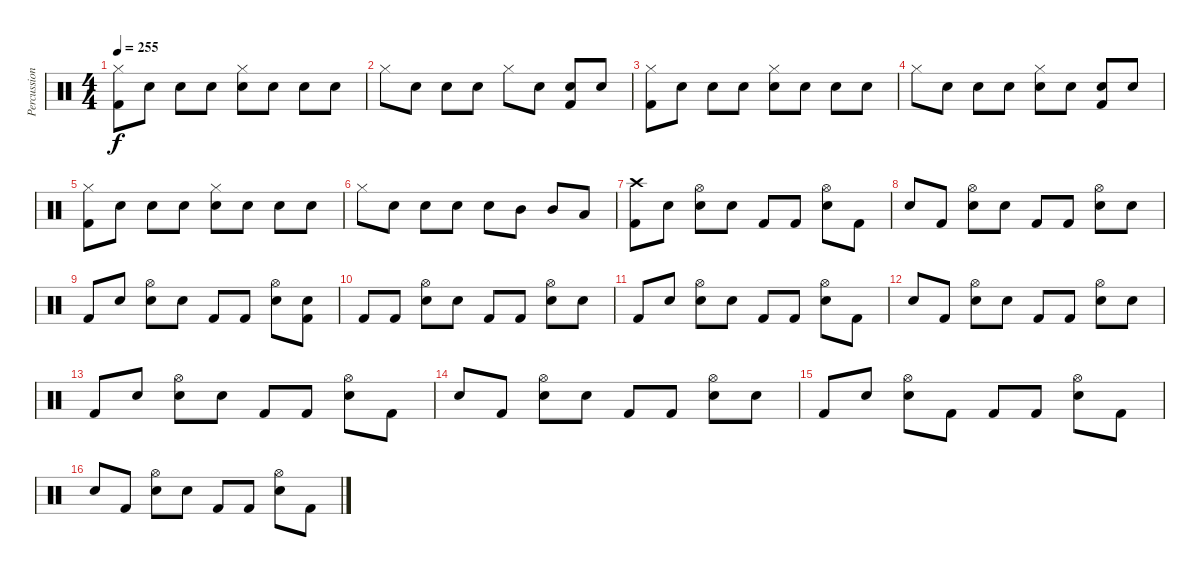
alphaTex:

\track ("Percussion" "Percussion") {instrument percussion}
\staff {score}
\articulation defaults
\ts (4 4)
\tempo 255
\clef neutral
\ks c
("Kick (hit) 2" "Hi-Hat (closed)").8{dy f} "Snare (hit)"{x}.8 "Snare (hit)"{x}.8 "Snare (hit)"{x}.8 ("Snare (hit) 2" "Hi-Hat (closed)").8 "Snare (hit)"{x}.8 "Snare (hit)"{x}.8 "Snare (hit)"{x}.8 |
"Hi-Hat (closed)".8 "Snare (hit)"{x}.8 "Snare (hit)"{x}.8 "Snare (hit)"{x}.8 "Hi-Hat (closed)".8 "Snare (hit)"{x}.8 ("Kick (hit) 2" "Snare (hit)"{x}).8 "Snare (hit)"{x}.8 |
("Kick (hit) 2" "Hi-Hat (closed)").8 "Snare (hit)"{x}.8 "Snare (hit)"{x}.8 "Snare (hit)"{x}.8 ("Snare (hit) 2" "Hi-Hat (closed)").8 "Snare (hit)"{x}.8 "Snare (hit)"{x}.8 "Snare (hit)"{x}.8 |
"Hi-Hat (closed)".8 "Snare (hit)"{x}.8 "Snare (hit)"{x}.8 "Snare (hit)"{x}.8 ("Snare (hit) 2" "Hi-Hat (closed)").8 "Snare (hit)"{x}.8 ("Kick (hit) 2" "Snare (hit)"{x}).8 "Snare (hit)"{x}.8 |
("Kick (hit) 2" "Hi-Hat (closed)").8 "Snare (hit)"{x}.8 "Snare (hit)"{x}.8 "Snare (hit)"{x}.8 ("Snare (hit) 2" "Hi-Hat (closed)").8 "Snare (hit)"{x}.8 "Snare (hit)"{x}.8 "Snare (hit)"{x}.8 |
"Hi-Hat (closed)".8 "Snare (hit)"{x}.8 "Snare (hit) 2".8 "Snare (hit) 2".8 "Snare (hit) 2".8 "Mid Tom (hit)".8 "Mid Tom (hit)".8 "Low Tom (hit)".8 |
("Kick (hit) 2" "Crash high (hit)").8 "Snare (hit)"{x}.8 ("Snare (hit) 2" "Hi-Hat (open)").8 "Snare (hit)"{x}.8 "Kick (hit) 2".8 "Kick (hit) 2".8 ("Snare (hit) 2" "Hi-Hat (open)").8 "Kick (hit) 2".8 |
"Snare (hit)"{x}.8 "Kick (hit) 2".8 ("Snare (hit) 2" "Hi-Hat (open)").8 "Snare (hit)"{x}.8 "Kick (hit) 2".8 "Kick (hit) 2".8 ("Snare (hit) 2" "Hi-Hat (open)").8 "Snare (hit)"{x}.8 |
"Kick (hit) 2".8 "Snare (hit)"{x}.8 ("Snare (hit) 2" "Hi-Hat (open)").8 "Snare (hit)"{x}.8 "Kick (hit) 2".8 "Kick (hit) 2".8 ("Snare (hit) 2" "Hi-Hat (open)").8 ("Kick (hit) 2" "Snare (hit)"{x}).8 |
"Kick (hit) 2"{x}.8 "Kick (hit) 2".8 ("Snare (hit) 2" "Hi-Hat (open)").8 "Snare (hit)"{x}.8 "Kick (hit) 2".8 "Kick (hit) 2".8 ("Snare (hit) 2" "Hi-Hat (open)").8 "Snare (hit)"{x}.8 |
"Kick (hit) 2".8 "Snare (hit)"{x}.8 ("Snare (hit) 2" "Hi-Hat (open)").8 "Snare (hit)"{x}.8 "Kick (hit) 2".8 "Kick (hit) 2".8 ("Snare (hit) 2" "Hi-Hat (open)").8 "Kick (hit) 2".8 |
"Snare (hit)"{x}.8 "Kick (hit) 2".8 ("Snare (hit) 2" "Hi-Hat (open)").8 "Snare (hit)"{x}.8 "Kick (hit) 2".8 "Kick (hit) 2".8 ("Snare (hit) 2" "Hi-Hat (open)").8 "Snare (hit)"{x}.8 |
"Kick (hit) 2".8 "Snare (hit)"{x}.8 ("Snare (hit) 2" "Hi-Hat (open)").8 "Snare (hit)"{x}.8 "Kick (hit) 2".8 "Kick (hit) 2".8 ("Snare (hit) 2" "Hi-Hat (open)").8 "Kick (hit) 2".8 |
"Snare (hit)"{x}.8 "Kick (hit) 2".8 ("Snare (hit) 2" "Hi-Hat (open)").8 "Snare (hit)"{x}.8 "Kick (hit) 2".8 "Kick (hit) 2".8 ("Snare (hit) 2" "Hi-Hat (open)").8 "Snare (hit)"{x}.8 |
"Kick (hit) 2".8 "Snare (hit)"{x}.8 ("Snare (hit) 2" "Hi-Hat (open)").8 "Kick (hit) 2"{x}.8 "Kick (hit) 2".8 "Kick (hit) 2".8 ("Snare (hit) 2" "Hi-Hat (open)").8 "Kick (hit) 2".8 |
"Snare (hit)"{x}.8 "Kick (hit) 2".8 ("Snare (hit) 2" "Hi-Hat (open)").8 "Snare (hit)"{x}.8 "Kick (hit) 2".8 "Kick (hit) 2".8 ("Snare (hit) 2" "Hi-Hat (open)").8 "Kick (hit) 2"{x}.8
